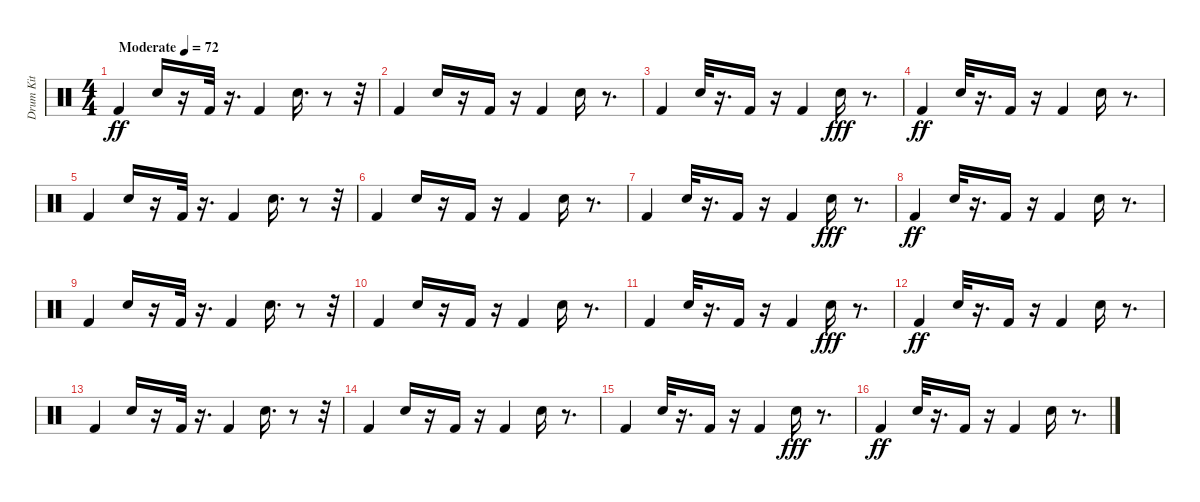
\track ("Drum Kit" "Drum Kit") {instrument percussion}
\staff {score}
\articulation defaults
\ts (4 4)
\tempo (72 "Moderate")
\clef neutral
\ks c "Kick (hit) 2".4{dy ff} "Electric Snare (hit)".16
r.16 "Kick (hit) 2".32 r.16{d} "Kick (hit) 2".4 "Electric Snare (hit)".16{d} r.8 r.32 |
"Kick (hit) 2".4 "Electric Snare (hit)".16 r.16 "Kick (hit) 2".16 r.16 "Kick (hit) 2".4 "Electric Snare (hit)".16 r.8{d} |
"Kick (hit) 2".4 "Electric Snare (hit)".32 r.16{d} "Kick (hit) 2".16 r.16 "Kick (hit) 2".4 "Electric Snare (hit)".16{dy fff} r.8{d} |
"Kick (hit) 2".4{dy ff} "Electric Snare (hit)".32 r.16{d} "Kick (hit) 2".16 r.16 "Kick (hit) 2".4 "Electric Snare (hit)".16 r.8{d} |
"Kick (hit) 2".4 "Electric Snare (hit)".16 r.16 "Kick (hit) 2".32 r.16{d} "Kick (hit) 2".4 "Electric Snare (hit)".16{d} r.8 r.32 |
"Kick (hit) 2".4 "Electric Snare (hit)".16 r.16 "Kick (hit) 2".16 r.16 "Kick (hit) 2".4 "Electric Snare (hit)".16 r.8{d} |
"Kick (hit) 2".4 "Electric Snare (hit)".32 r.16{d} "Kick (hit) 2".16 r.16 "Kick (hit) 2".4 "Electric Snare (hit)".16{dy fff} r.8{d} |
"Kick (hit) 2".4{dy ff} "Electric Snare (hit)".32 r.16{d} "Kick (hit) 2".16 r.16 "Kick (hit) 2".4 "Electric Snare (hit)".16 r.8{d} |
"Kick (hit) 2".4 "Electric Snare (hit)".16 r.16 "Kick (hit) 2".32 r.16{d} "Kick (hit) 2".4 "Electric Snare (hit)".16{d} r.8 r.32 |
"Kick (hit) 2".4 "Electric Snare (hit)".16 r.16 "Kick (hit) 2".16 r.16 "Kick (hit) 2".4 "Electric Snare (hit)".16 r.8{d} |
"Kick (hit) 2".4 "Electric Snare (hit)".32 r.16{d} "Kick (hit) 2".16 r.16 "Kick (hit) 2".4 "Electric Snare (hit)".16{dy fff} r.8{d} |
"Kick (hit) 2".4{dy ff} "Electric Snare (hit)".32 r.16{d} "Kick (hit) 2".16 r.16 "Kick (hit) 2".4 "Electric Snare (hit)".16 r.8{d} |
"Kick (hit) 2".4 "Electric Snare (hit)".16 r.16 "Kick (hit) 2".32 r.16{d} "Kick (hit) 2".4 "Electric Snare (hit)".16{d} r.8 r.32 |
"Kick (hit) 2".4 "Electric Snare (hit)".16 r.16 "Kick (hit) 2".16 r.16 "Kick (hit) 2".4 "Electric Snare (hit)".16 r.8{d} |
"Kick (hit) 2".4 "Electric Snare (hit)".32 r.16{d} "Kick (hit) 2".16 r.16 "Kick (hit) 2".4 "Electric Snare (hit)".16{dy fff} r.8{d} |
"Kick (hit) 2".4{dy ff} "Electric Snare (hit)".32 r.16{d} "Kick (hit) 2".16 r.16 "Kick (hit) 2".4 "Electric Snare (hit)".16 r.8{d}
